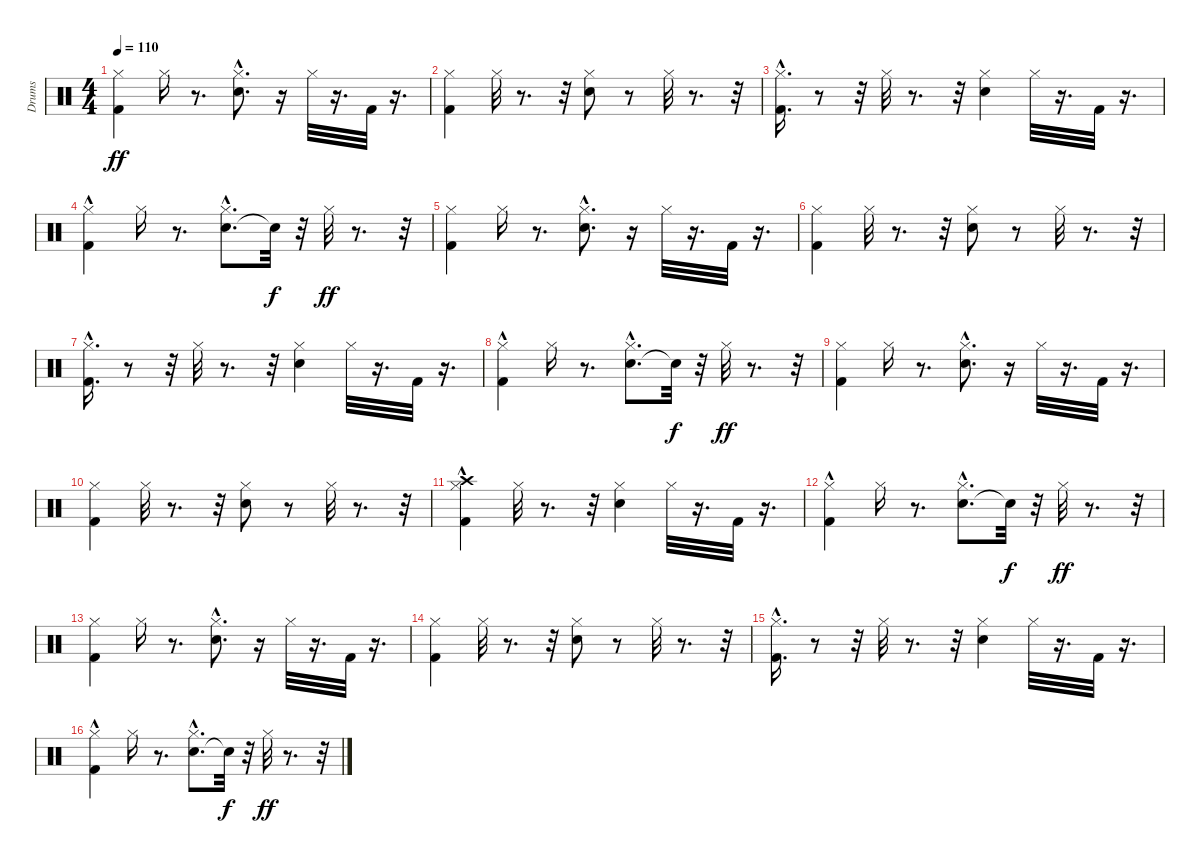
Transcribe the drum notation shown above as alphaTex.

\track ("Drums" "Drums") {instrument percussion}
\staff {score}
\articulation defaults
\ts (4 4)
\tempo 110
\clef neutral
\ks c
("Kick (hit) 2" "Hi-Hat (closed)").4{dy ff} "Hi-Hat (closed)".16 r.8{d} ("Snare (hit) 2"{hac} "Hi-Hat (closed)").8{d} r.16 "Hi-Hat (closed)".32 r.16{d} "Kick (hit) 2".32 r.16{d} |
("Kick (hit) 2" "Hi-Hat (closed)").4 "Hi-Hat (closed)".32 r.8{d} r.32 ("Hi-Hat (closed)" "Snare (hit) 2").8 r.8 "Hi-Hat (closed)".32 r.8{d} r.32 |
("Kick (hit) 2"{hac} "Hi-Hat (closed)").16{d} r.8 r.32 "Hi-Hat (closed)".32 r.8{d} r.32 ("Hi-Hat (closed)" "Snare (hit) 2").4 "Hi-Hat (closed)".32 r.16{d} "Kick (hit) 2".32 r.16{d} |
("Kick (hit) 2"{hac} "Hi-Hat (closed)").4 "Hi-Hat (closed)".16 r.8{d} ("Snare (hit) 2"{hac} "Hi-Hat (closed)").8{d} "Snare (hit)"{t}.32{dy f} r.32 "Hi-Hat (closed)".32{dy ff} r.8{d} r.32 |
("Kick (hit) 2" "Hi-Hat (closed)").4 "Hi-Hat (closed)".16 r.8{d} ("Snare (hit) 2"{hac} "Hi-Hat (closed)").8{d} r.16 "Hi-Hat (closed)".32 r.16{d} "Kick (hit) 2".32 r.16{d} |
("Kick (hit) 2" "Hi-Hat (closed)").4 "Hi-Hat (closed)".32 r.8{d} r.32 ("Hi-Hat (closed)" "Snare (hit) 2").8 r.8 "Hi-Hat (closed)".32 r.8{d} r.32 |
("Kick (hit) 2"{hac} "Hi-Hat (closed)").16{d} r.8 r.32 "Hi-Hat (closed)".32 r.8{d} r.32 ("Hi-Hat (closed)" "Snare (hit) 2").4 "Hi-Hat (closed)".32 r.16{d} "Kick (hit) 2".32 r.16{d} |
("Kick (hit) 2"{hac} "Hi-Hat (closed)").4 "Hi-Hat (closed)".16 r.8{d} ("Snare (hit) 2"{hac} "Hi-Hat (closed)").8{d} "Snare (hit)"{t}.32{dy f} r.32 "Hi-Hat (closed)".32{dy ff} r.8{d} r.32 |
("Kick (hit) 2" "Hi-Hat (closed)").4 "Hi-Hat (closed)".16 r.8{d} ("Snare (hit) 2"{hac} "Hi-Hat (closed)").8{d} r.16 "Hi-Hat (closed)".32 r.16{d} "Kick (hit) 2".32 r.16{d} |
("Kick (hit) 2" "Hi-Hat (closed)").4 "Hi-Hat (closed)".32 r.8{d} r.32 ("Hi-Hat (closed)" "Snare (hit) 2").8 r.8 "Hi-Hat (closed)".32 r.8{d} r.32 |
("Kick (hit) 2"{hac} "Hi-Hat (closed)" "Crash high (hit)").4 "Hi-Hat (closed)".32 r.8{d} r.32 ("Hi-Hat (closed)" "Snare (hit) 2").4 "Hi-Hat (closed)".32 r.16{d} "Kick (hit) 2".32 r.16{d} |
("Kick (hit) 2"{hac} "Hi-Hat (closed)").4 "Hi-Hat (closed)".16 r.8{d} ("Snare (hit) 2"{hac} "Hi-Hat (closed)").8{d} "Snare (hit)"{t}.32{dy f} r.32 "Hi-Hat (closed)".32{dy ff} r.8{d} r.32 |
("Kick (hit) 2" "Hi-Hat (closed)").4 "Hi-Hat (closed)".16 r.8{d} ("Snare (hit) 2"{hac} "Hi-Hat (closed)").8{d} r.16 "Hi-Hat (closed)".32 r.16{d} "Kick (hit) 2".32 r.16{d} |
("Kick (hit) 2" "Hi-Hat (closed)").4 "Hi-Hat (closed)".32 r.8{d} r.32 ("Hi-Hat (closed)" "Snare (hit) 2").8 r.8 "Hi-Hat (closed)".32 r.8{d} r.32 |
("Kick (hit) 2"{hac} "Hi-Hat (closed)").16{d} r.8 r.32 "Hi-Hat (closed)".32 r.8{d} r.32 ("Hi-Hat (closed)" "Snare (hit) 2").4 "Hi-Hat (closed)".32 r.16{d} "Kick (hit) 2".32 r.16{d} |
("Kick (hit) 2"{hac} "Hi-Hat (closed)").4 "Hi-Hat (closed)".16 r.8{d} ("Snare (hit) 2"{hac} "Hi-Hat (closed)").8{d} "Snare (hit)"{t}.32{dy f} r.32 "Hi-Hat (closed)".32{dy ff} r.8{d} r.32
